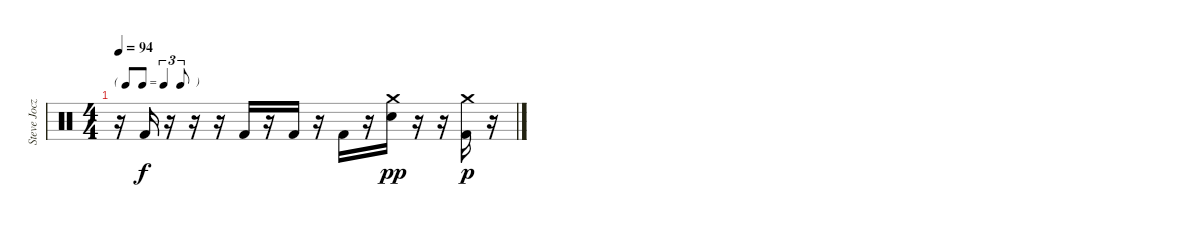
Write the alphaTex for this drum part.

\track ("Steve Jocz   \"Stevo32\"        (drums)" "Steve Jocz") {instrument percussion}
\staff {score}
\articulation defaults
\ts (4 4)
\tf triplet8th
\tempo 94
\clef neutral
\ks c
r.16{dy f} "Kick (hit) 2".16 r.16 r.16 r.16 "Kick (hit) 2".16 r.16 "Kick (hit) 2".16 r.16 "Kick (hit) 2".16 r.16 ("Crash medium (hit)" "Electric Snare (hit)").16{dy pp} r.16 r.16 ("Crash medium (hit)" "Kick (hit) 2").16{dy p} r.16
